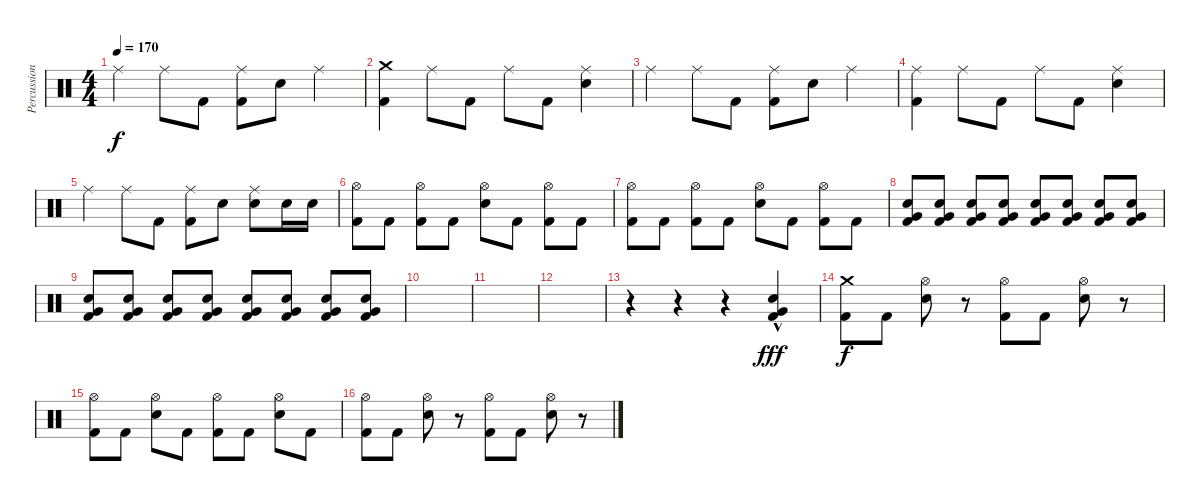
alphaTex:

\track ("Percussion" "Percussion") {instrument percussion}
\staff {score}
\articulation defaults
\ts (4 4)
\tempo 170
\clef neutral
\ks c "Ride (middle)".4{dy f} "Ride (middle)".8 "Kick (hit) 2".8
("Ride (middle)" "Kick (hit) 2").8 "Electric Snare (hit)".8 "Ride (middle)".4 |
("Crash medium (hit)" "Kick (hit) 2").4 "Ride (middle)".8 "Kick (hit) 2".8 "Ride (middle)".8 "Kick (hit) 2".8 ("Ride (middle)" "Electric Snare (hit)").4 |
"Ride (middle)".4 "Ride (middle)".8 "Kick (hit) 2".8 ("Ride (middle)" "Kick (hit) 2").8 "Electric Snare (hit)".8 "Ride (middle)".4 |
("Ride (middle)" "Kick (hit) 2").4 "Ride (middle)".8 "Kick (hit) 2".8 "Ride (middle)".8 "Kick (hit) 2".8 ("Ride (middle)" "Electric Snare (hit)").4 |
"Ride (middle)".4 "Ride (middle)".8 "Kick (hit) 2".8 ("Ride (middle)" "Kick (hit) 2").8 "Electric Snare (hit)".8 ("Ride (middle)" "Electric Snare (hit)").8 "Electric Snare (hit)".16 "Electric Snare (hit)".16 |
("Hi-Hat (open)" "Kick (hit) 2").8 "Kick (hit) 2".8 ("Hi-Hat (open)" "Kick (hit) 2").8 "Kick (hit) 2".8 ("Hi-Hat (open)" "Electric Snare (hit)").8 "Kick (hit) 2".8 ("Hi-Hat (open)" "Kick (hit) 2").8 "Kick (hit) 2".8 |
("Hi-Hat (open)" "Kick (hit) 2").8 "Kick (hit) 2".8 ("Hi-Hat (open)" "Kick (hit) 2").8 "Kick (hit) 2".8 ("Hi-Hat (open)" "Electric Snare (hit)").8 "Kick (hit) 2".8 ("Hi-Hat (open)" "Kick (hit) 2").8 "Kick (hit) 2".8 |
("Electric Snare (hit)" "Very Low Tom (hit)" "Kick (hit) 2").8{volume 15} ("Electric Snare (hit)" "Very Low Tom (hit)" "Kick (hit) 2").8 ("Electric Snare (hit)" "Very Low Tom (hit)" "Kick (hit) 2").8 ("Electric Snare (hit)" "Very Low Tom (hit)" "Kick (hit) 2").8 ("Electric Snare (hit)" "Very Low Tom (hit)" "Kick (hit) 2").8 ("Electric Snare (hit)" "Very Low Tom (hit)" "Kick (hit) 2").8 ("Electric Snare (hit)" "Very Low Tom (hit)" "Kick (hit) 2").8 ("Electric Snare (hit)" "Very Low Tom (hit)" "Kick (hit) 2").8 |
("Electric Snare (hit)" "Very Low Tom (hit)" "Kick (hit) 2").8 ("Electric Snare (hit)" "Very Low Tom (hit)" "Kick (hit) 2").8 ("Electric Snare (hit)" "Very Low Tom (hit)" "Kick (hit) 2").8 ("Electric Snare (hit)" "Very Low Tom (hit)" "Kick (hit) 2").8 ("Electric Snare (hit)" "Very Low Tom (hit)" "Kick (hit) 2").8 ("Electric Snare (hit)" "Very Low Tom (hit)" "Kick (hit) 2").8 ("Electric Snare (hit)" "Very Low Tom (hit)" "Kick (hit) 2").8 ("Electric Snare (hit)" "Very Low Tom (hit)" "Kick (hit) 2").8 |
|
|
|
r.4 r.4 r.4 ("Electric Snare (hit)"{hac} "Very Low Tom (hit)"{hac} "Kick (hit) 2"{hac}).4{dy fff} |
("Crash medium (hit)" "Kick (hit) 2").8{dy f} "Kick (hit) 2".8 ("Hi-Hat (open)" "Electric Snare (hit)").8 r.8 ("Hi-Hat (open)" "Kick (hit) 2").8 "Kick (hit) 2".8 ("Hi-Hat (open)" "Electric Snare (hit)").8 r.8 |
("Hi-Hat (open)" "Kick (hit) 2").8 "Kick (hit) 2".8 ("Hi-Hat (open)" "Electric Snare (hit)").8 "Kick (hit) 2".8 ("Hi-Hat (open)" "Kick (hit) 2").8 "Kick (hit) 2".8 ("Hi-Hat (open)" "Electric Snare (hit)").8 "Kick (hit) 2".8 |
("Hi-Hat (open)" "Kick (hit) 2").8 "Kick (hit) 2".8 ("Hi-Hat (open)" "Electric Snare (hit)").8 r.8 ("Hi-Hat (open)" "Kick (hit) 2").8 "Kick (hit) 2".8 ("Hi-Hat (open)" "Electric Snare (hit)").8 r.8
